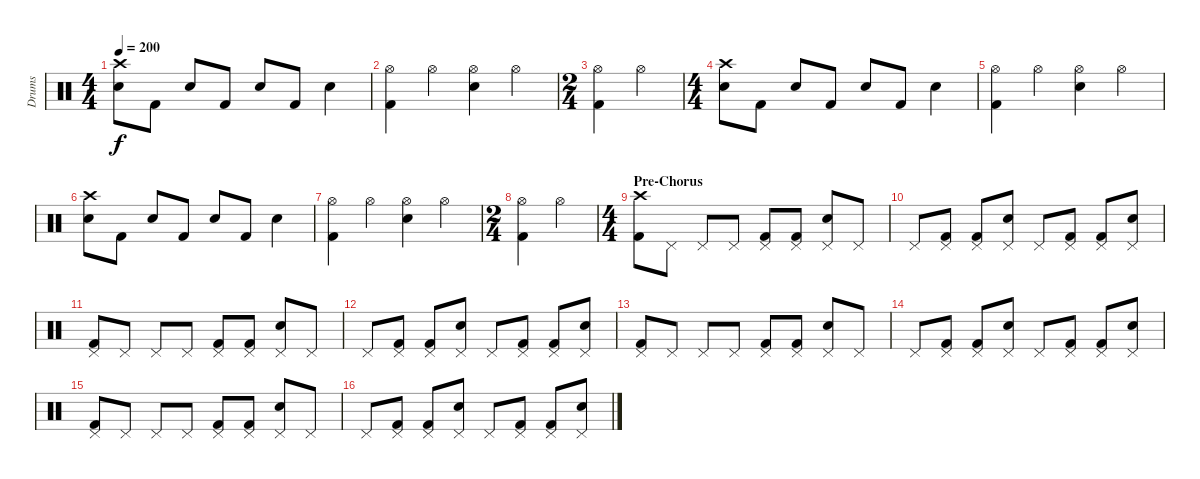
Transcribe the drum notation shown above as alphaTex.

\track ("Drums" "Drums") {instrument percussion}
\staff {score}
\articulation defaults
\ts (4 4)
\tempo 200
\clef neutral
\ks c
("Crash high (hit)" "Snare (hit) 2").8{dy f} "Kick (hit) 2".8 "Snare (hit) 2".8 "Kick (hit) 2".8 "Snare (hit) 2".8 "Kick (hit) 2".8 "Snare (hit) 2".4 |
("Hi-Hat (open)" "Kick (hit) 2").4 "Hi-Hat (open)".4 ("Hi-Hat (open)" "Snare (hit) 2").4 "Hi-Hat (open)".4 |
\ts (2 4)
("Hi-Hat (open)" "Kick (hit) 2").4 "Hi-Hat (open)".4 |
\ts (4 4)
("Crash high (hit)" "Snare (hit) 2").8 "Kick (hit) 2".8 "Snare (hit) 2".8 "Kick (hit) 2".8 "Snare (hit) 2".8 "Kick (hit) 2".8 "Snare (hit) 2".4 |
("Hi-Hat (open)" "Kick (hit) 2").4 "Hi-Hat (open)".4 ("Hi-Hat (open)" "Snare (hit) 2").4 "Hi-Hat (open)".4 |
("Crash high (hit)" "Snare (hit) 2").8 "Kick (hit) 2".8 "Snare (hit) 2".8 "Kick (hit) 2".8 "Snare (hit) 2".8 "Kick (hit) 2".8 "Snare (hit) 2".4 |
("Hi-Hat (open)" "Kick (hit) 2").4 "Hi-Hat (open)".4 ("Hi-Hat (open)" "Snare (hit) 2").4 "Hi-Hat (open)".4 |
\ts (2 4)
("Hi-Hat (open)" "Kick (hit) 2").4 "Hi-Hat (open)".4 |
\ts (4 4)
\section ("" "Pre-Chorus")
("Crash high (hit)" "Kick (hit) 2").8 "Pedal Hi-Hat (hit)".8 "Pedal Hi-Hat (hit)".8 "Pedal Hi-Hat (hit)".8 ("Pedal Hi-Hat (hit)" "Kick (hit) 2").8 ("Pedal Hi-Hat (hit)" "Kick (hit) 2").8 ("Pedal Hi-Hat (hit)" "Snare (hit) 2").8 "Pedal Hi-Hat (hit)".8 |
"Pedal Hi-Hat (hit)".8 ("Pedal Hi-Hat (hit)" "Kick (hit) 2").8 ("Pedal Hi-Hat (hit)" "Kick (hit) 2").8 ("Pedal Hi-Hat (hit)" "Snare (hit) 2").8 "Pedal Hi-Hat (hit)".8 ("Pedal Hi-Hat (hit)" "Kick (hit) 2").8 ("Pedal Hi-Hat (hit)" "Kick (hit) 2").8 ("Pedal Hi-Hat (hit)" "Snare (hit) 2").8 |
("Pedal Hi-Hat (hit)" "Kick (hit) 2").8 "Pedal Hi-Hat (hit)".8 "Pedal Hi-Hat (hit)".8 "Pedal Hi-Hat (hit)".8 ("Pedal Hi-Hat (hit)" "Kick (hit) 2").8 ("Pedal Hi-Hat (hit)" "Kick (hit) 2").8 ("Pedal Hi-Hat (hit)" "Snare (hit) 2").8 "Pedal Hi-Hat (hit)".8 |
"Pedal Hi-Hat (hit)".8 ("Pedal Hi-Hat (hit)" "Kick (hit) 2").8 ("Pedal Hi-Hat (hit)" "Kick (hit) 2").8 ("Pedal Hi-Hat (hit)" "Snare (hit) 2").8 "Pedal Hi-Hat (hit)".8 ("Pedal Hi-Hat (hit)" "Kick (hit) 2").8 ("Pedal Hi-Hat (hit)" "Kick (hit) 2").8 ("Pedal Hi-Hat (hit)" "Snare (hit) 2").8 |
("Pedal Hi-Hat (hit)" "Kick (hit) 2").8 "Pedal Hi-Hat (hit)".8 "Pedal Hi-Hat (hit)".8 "Pedal Hi-Hat (hit)".8 ("Pedal Hi-Hat (hit)" "Kick (hit) 2").8 ("Pedal Hi-Hat (hit)" "Kick (hit) 2").8 ("Pedal Hi-Hat (hit)" "Snare (hit) 2").8 "Pedal Hi-Hat (hit)".8 |
"Pedal Hi-Hat (hit)".8 ("Pedal Hi-Hat (hit)" "Kick (hit) 2").8 ("Pedal Hi-Hat (hit)" "Kick (hit) 2").8 ("Pedal Hi-Hat (hit)" "Snare (hit) 2").8 "Pedal Hi-Hat (hit)".8 ("Pedal Hi-Hat (hit)" "Kick (hit) 2").8 ("Pedal Hi-Hat (hit)" "Kick (hit) 2").8 ("Pedal Hi-Hat (hit)" "Snare (hit) 2").8 |
("Pedal Hi-Hat (hit)" "Kick (hit) 2").8 "Pedal Hi-Hat (hit)".8 "Pedal Hi-Hat (hit)".8 "Pedal Hi-Hat (hit)".8 ("Pedal Hi-Hat (hit)" "Kick (hit) 2").8 ("Pedal Hi-Hat (hit)" "Kick (hit) 2").8 ("Pedal Hi-Hat (hit)" "Snare (hit) 2").8 "Pedal Hi-Hat (hit)".8 |
"Pedal Hi-Hat (hit)".8 ("Pedal Hi-Hat (hit)" "Kick (hit) 2").8 ("Pedal Hi-Hat (hit)" "Kick (hit) 2").8 ("Pedal Hi-Hat (hit)" "Snare (hit) 2").8 "Pedal Hi-Hat (hit)".8 ("Pedal Hi-Hat (hit)" "Kick (hit) 2").8 ("Pedal Hi-Hat (hit)" "Kick (hit) 2").8 ("Pedal Hi-Hat (hit)" "Snare (hit) 2").8
